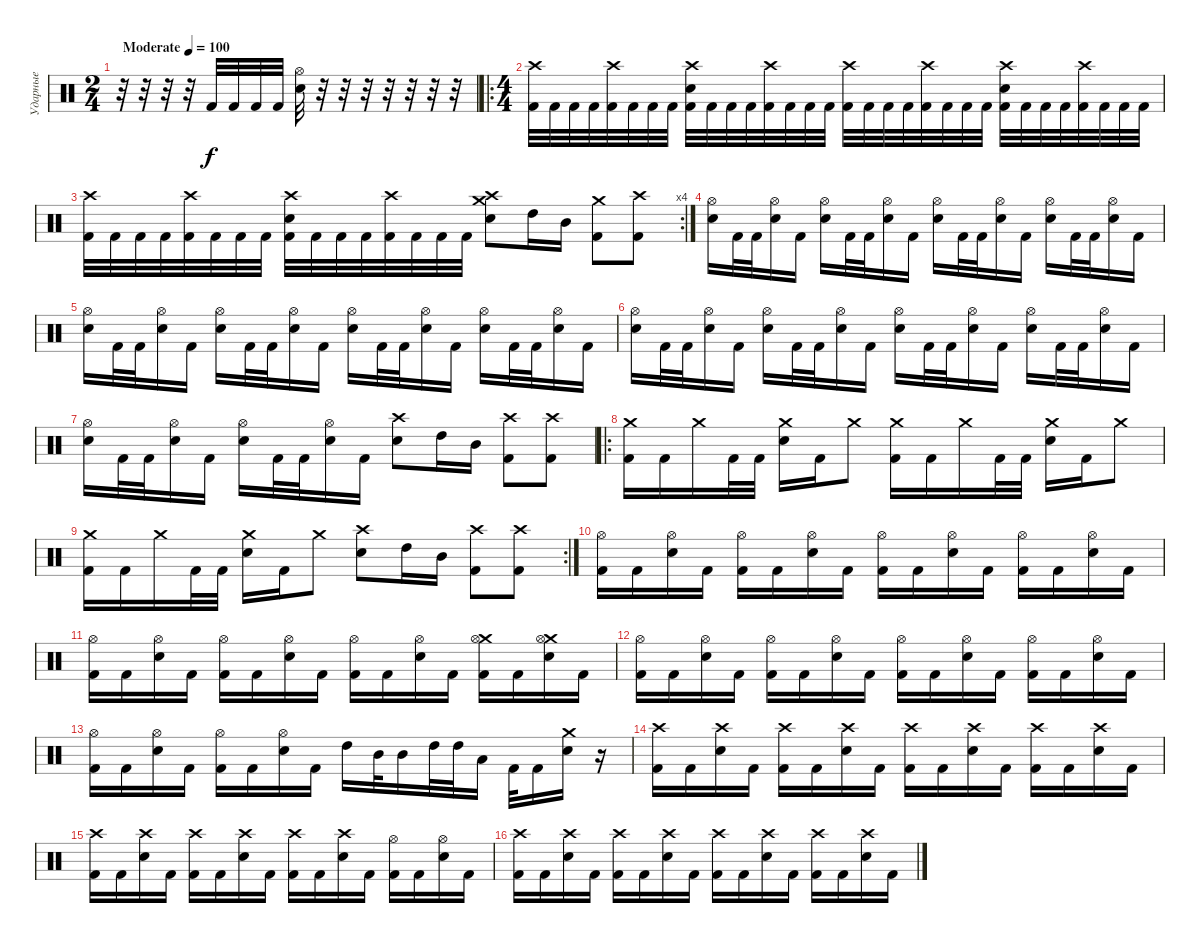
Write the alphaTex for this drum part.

\track ("Ударные" "Ударные") {instrument percussion}
\staff {score}
\articulation defaults
\ts (2 4)
\tempo (100 "Moderate")
\clef neutral
\ks c
r.32{dy f} r.32 r.32 r.32 "Kick (hit) 2".32 "Kick (hit) 2".32 "Kick (hit) 2".32 "Kick (hit) 2".32 ("Hi-Hat (open)" "Electric Snare (hit)").32 r.32 r.32 r.32 r.32 r.32 r.32 r.32 |
\ro
\ts (4 4)
("Crash high (hit)" "Kick (hit) 2").32 "Kick (hit) 2".32 "Kick (hit) 2".32 "Kick (hit) 2".32 ("Crash high (hit)" "Kick (hit) 2").32 "Kick (hit) 2".32 "Kick (hit) 2".32 "Kick (hit) 2".32 ("Crash high (hit)" "Electric Snare (hit)" "Kick (hit) 2").32 "Kick (hit) 2".32 "Kick (hit) 2".32 "Kick (hit) 2".32 ("Crash high (hit)" "Kick (hit) 2").32 "Kick (hit) 2".32 "Kick (hit) 2".32 "Kick (hit) 2".32 ("Crash high (hit)" "Kick (hit) 2").32 "Kick (hit) 2".32 "Kick (hit) 2".32 "Kick (hit) 2".32 ("Crash high (hit)" "Kick (hit) 2").32 "Kick (hit) 2".32 "Kick (hit) 2".32 "Kick (hit) 2".32 ("Crash high (hit)" "Electric Snare (hit)" "Kick (hit) 2").32 "Kick (hit) 2".32 "Kick (hit) 2".32 "Kick (hit) 2".32 ("Crash high (hit)" "Kick (hit) 2").32 "Kick (hit) 2".32 "Kick (hit) 2".32 "Kick (hit) 2".32 |
\rc 4
("Crash high (hit)" "Kick (hit) 2").32 "Kick (hit) 2".32 "Kick (hit) 2".32 "Kick (hit) 2".32 ("Crash high (hit)" "Kick (hit) 2").32 "Kick (hit) 2".32 "Kick (hit) 2".32 "Kick (hit) 2".32 ("Crash high (hit)" "Electric Snare (hit)" "Kick (hit) 2").32 "Kick (hit) 2".32 "Kick (hit) 2".32 "Kick (hit) 2".32 ("Crash high (hit)" "Kick (hit) 2").32 "Kick (hit) 2".32 "Kick (hit) 2".32 "Kick (hit) 2".32 ("Crash high (hit)" "Crash medium (hit)" "Electric Snare (hit)").8 "High Tom (hit)".16 "Mid Tom (hit)".16 ("Crash medium (hit)" "Kick (hit) 2").8 ("Crash high (hit)" "Kick (hit) 2").8 |
("Hi-Hat (open)" "Electric Snare (hit)").16 "Kick (hit) 2".32 "Kick (hit) 2".32 ("Hi-Hat (open)" "Electric Snare (hit)").16 "Kick (hit) 2".16 ("Hi-Hat (open)" "Electric Snare (hit)").16 "Kick (hit) 2".32 "Kick (hit) 2".32 ("Hi-Hat (open)" "Electric Snare (hit)").16 "Kick (hit) 2".16 ("Hi-Hat (open)" "Electric Snare (hit)").16 "Kick (hit) 2".32 "Kick (hit) 2".32 ("Hi-Hat (open)" "Electric Snare (hit)").16 "Kick (hit) 2".16 ("Hi-Hat (open)" "Electric Snare (hit)").16 "Kick (hit) 2".32 "Kick (hit) 2".32 ("Hi-Hat (open)" "Electric Snare (hit)").16 "Kick (hit) 2".16 |
("Hi-Hat (open)" "Electric Snare (hit)").16 "Kick (hit) 2".32 "Kick (hit) 2".32 ("Hi-Hat (open)" "Electric Snare (hit)").16 "Kick (hit) 2".16 ("Hi-Hat (open)" "Electric Snare (hit)").16 "Kick (hit) 2".32 "Kick (hit) 2".32 ("Hi-Hat (open)" "Electric Snare (hit)").16 "Kick (hit) 2".16 ("Hi-Hat (open)" "Electric Snare (hit)").16 "Kick (hit) 2".32 "Kick (hit) 2".32 ("Hi-Hat (open)" "Electric Snare (hit)").16 "Kick (hit) 2".16 ("Hi-Hat (open)" "Electric Snare (hit)").16 "Kick (hit) 2".32 "Kick (hit) 2".32 ("Hi-Hat (open)" "Electric Snare (hit)").16 "Kick (hit) 2".16 |
("Hi-Hat (open)" "Electric Snare (hit)").16 "Kick (hit) 2".32 "Kick (hit) 2".32 ("Hi-Hat (open)" "Electric Snare (hit)").16 "Kick (hit) 2".16 ("Hi-Hat (open)" "Electric Snare (hit)").16 "Kick (hit) 2".32 "Kick (hit) 2".32 ("Hi-Hat (open)" "Electric Snare (hit)").16 "Kick (hit) 2".16 ("Hi-Hat (open)" "Electric Snare (hit)").16 "Kick (hit) 2".32 "Kick (hit) 2".32 ("Hi-Hat (open)" "Electric Snare (hit)").16 "Kick (hit) 2".16 ("Hi-Hat (open)" "Electric Snare (hit)").16 "Kick (hit) 2".32 "Kick (hit) 2".32 ("Hi-Hat (open)" "Electric Snare (hit)").16 "Kick (hit) 2".16 |
("Hi-Hat (open)" "Electric Snare (hit)").16 "Kick (hit) 2".32 "Kick (hit) 2".32 ("Hi-Hat (open)" "Electric Snare (hit)").16 "Kick (hit) 2".16 ("Hi-Hat (open)" "Electric Snare (hit)").16 "Kick (hit) 2".32 "Kick (hit) 2".32 ("Hi-Hat (open)" "Electric Snare (hit)").16 "Kick (hit) 2".16 ("Crash high (hit)" "Electric Snare (hit)").8 "High Tom (hit)".16 "Mid Tom (hit)".16 ("Crash high (hit)" "Kick (hit) 2").8 ("Crash high (hit)" "Kick (hit) 2").8 |
\ro
("Crash medium (hit)" "Kick (hit) 2").16 "Kick (hit) 2".16 "Crash medium (hit)".16 "Kick (hit) 2".32 "Kick (hit) 2".32 ("Crash medium (hit)" "Electric Snare (hit)").16 "Kick (hit) 2".16 "Crash medium (hit)".8 ("Crash medium (hit)" "Kick (hit) 2").16 "Kick (hit) 2".16 "Crash medium (hit)".16 "Kick (hit) 2".32 "Kick (hit) 2".32 ("Crash medium (hit)" "Electric Snare (hit)").16 "Kick (hit) 2".16 "Crash medium (hit)".8 |
\rc 2
("Crash medium (hit)" "Kick (hit) 2").16 "Kick (hit) 2".16 "Crash medium (hit)".16 "Kick (hit) 2".32 "Kick (hit) 2".32 ("Crash medium (hit)" "Electric Snare (hit)").16 "Kick (hit) 2".16 "Crash medium (hit)".8 ("Crash high (hit)" "Electric Snare (hit)").8 "High Tom (hit)".16 "Mid Tom (hit)".16 ("Crash high (hit)" "Kick (hit) 2").8 ("Crash high (hit)" "Kick (hit) 2").8 |
("Hi-Hat (open)" "Kick (hit) 2").16 "Kick (hit) 2".16 ("Hi-Hat (open)" "Electric Snare (hit)").16 "Kick (hit) 2".16 ("Hi-Hat (open)" "Kick (hit) 2").16 "Kick (hit) 2".16 ("Hi-Hat (open)" "Electric Snare (hit)").16 "Kick (hit) 2".16 ("Hi-Hat (open)" "Kick (hit) 2").16 "Kick (hit) 2".16 ("Hi-Hat (open)" "Electric Snare (hit)").16 "Kick (hit) 2".16 ("Hi-Hat (open)" "Kick (hit) 2").16 "Kick (hit) 2".16 ("Hi-Hat (open)" "Electric Snare (hit)").16 "Kick (hit) 2".16 |
("Hi-Hat (open)" "Kick (hit) 2").16 "Kick (hit) 2".16 ("Hi-Hat (open)" "Electric Snare (hit)").16 "Kick (hit) 2".16 ("Hi-Hat (open)" "Kick (hit) 2").16 "Kick (hit) 2".16 ("Hi-Hat (open)" "Electric Snare (hit)").16 "Kick (hit) 2".16 ("Hi-Hat (open)" "Kick (hit) 2").16 "Kick (hit) 2".16 ("Hi-Hat (open)" "Electric Snare (hit)").16 "Kick (hit) 2".16 ("Crash medium (hit)" "Hi-Hat (open)" "Kick (hit) 2").16 "Kick (hit) 2".16 ("Crash medium (hit)" "Hi-Hat (open)" "Electric Snare (hit)").16 "Kick (hit) 2".16 |
("Hi-Hat (open)" "Kick (hit) 2").16 "Kick (hit) 2".16 ("Hi-Hat (open)" "Electric Snare (hit)").16 "Kick (hit) 2".16 ("Hi-Hat (open)" "Kick (hit) 2").16 "Kick (hit) 2".16 ("Hi-Hat (open)" "Electric Snare (hit)").16 "Kick (hit) 2".16 ("Hi-Hat (open)" "Kick (hit) 2").16 "Kick (hit) 2".16 ("Hi-Hat (open)" "Electric Snare (hit)").16 "Kick (hit) 2".16 ("Hi-Hat (open)" "Kick (hit) 2").16 "Kick (hit) 2".16 ("Hi-Hat (open)" "Electric Snare (hit)").16 "Kick (hit) 2".16 |
("Hi-Hat (open)" "Kick (hit) 2").16 "Kick (hit) 2".16 ("Hi-Hat (open)" "Electric Snare (hit)").16 "Kick (hit) 2".16 ("Hi-Hat (open)" "Kick (hit) 2").16 "Kick (hit) 2".16 ("Hi-Hat (open)" "Electric Snare (hit)").16 "Kick (hit) 2".16 "High Tom (hit)".16 "Mid Tom (hit)".32 "Mid Tom (hit)".16 "High Tom (hit)".32 "High Tom (hit)".32 "Low Tom (hit)".16 "Kick (hit) 2".32 "Kick (hit) 2".16 ("Crash medium (hit)" "Electric Snare (hit)").16 r.16 |
("Crash high (hit)" "Kick (hit) 2").16 "Kick (hit) 2".16 ("Crash high (hit)" "Electric Snare (hit)").16 "Kick (hit) 2".16 ("Crash high (hit)" "Kick (hit) 2").16 "Kick (hit) 2".16 ("Crash high (hit)" "Electric Snare (hit)").16 "Kick (hit) 2".16 ("Crash high (hit)" "Kick (hit) 2").16 "Kick (hit) 2".16 ("Crash high (hit)" "Electric Snare (hit)").16 "Kick (hit) 2".16 ("Crash high (hit)" "Kick (hit) 2").16 "Kick (hit) 2".16 ("Crash high (hit)" "Electric Snare (hit)").16 "Kick (hit) 2".16 |
("Crash high (hit)" "Kick (hit) 2").16 "Kick (hit) 2".16 ("Crash high (hit)" "Electric Snare (hit)").16 "Kick (hit) 2".16 ("Crash high (hit)" "Kick (hit) 2").16 "Kick (hit) 2".16 ("Crash high (hit)" "Electric Snare (hit)").16 "Kick (hit) 2".16 ("Crash high (hit)" "Kick (hit) 2").16 "Kick (hit) 2".16 ("Crash high (hit)" "Electric Snare (hit)").16 "Kick (hit) 2".16 ("Hi-Hat (open)" "Kick (hit) 2").16 "Kick (hit) 2".16 ("Hi-Hat (open)" "Electric Snare (hit)").16 "Kick (hit) 2".16 |
("Crash high (hit)" "Kick (hit) 2").16 "Kick (hit) 2".16 ("Crash high (hit)" "Electric Snare (hit)").16 "Kick (hit) 2".16 ("Crash high (hit)" "Kick (hit) 2").16 "Kick (hit) 2".16 ("Crash high (hit)" "Electric Snare (hit)").16 "Kick (hit) 2".16 ("Crash high (hit)" "Kick (hit) 2").16 "Kick (hit) 2".16 ("Crash high (hit)" "Electric Snare (hit)").16 "Kick (hit) 2".16 ("Crash high (hit)" "Kick (hit) 2").16 "Kick (hit) 2".16 ("Crash high (hit)" "Electric Snare (hit)").16 "Kick (hit) 2".16
